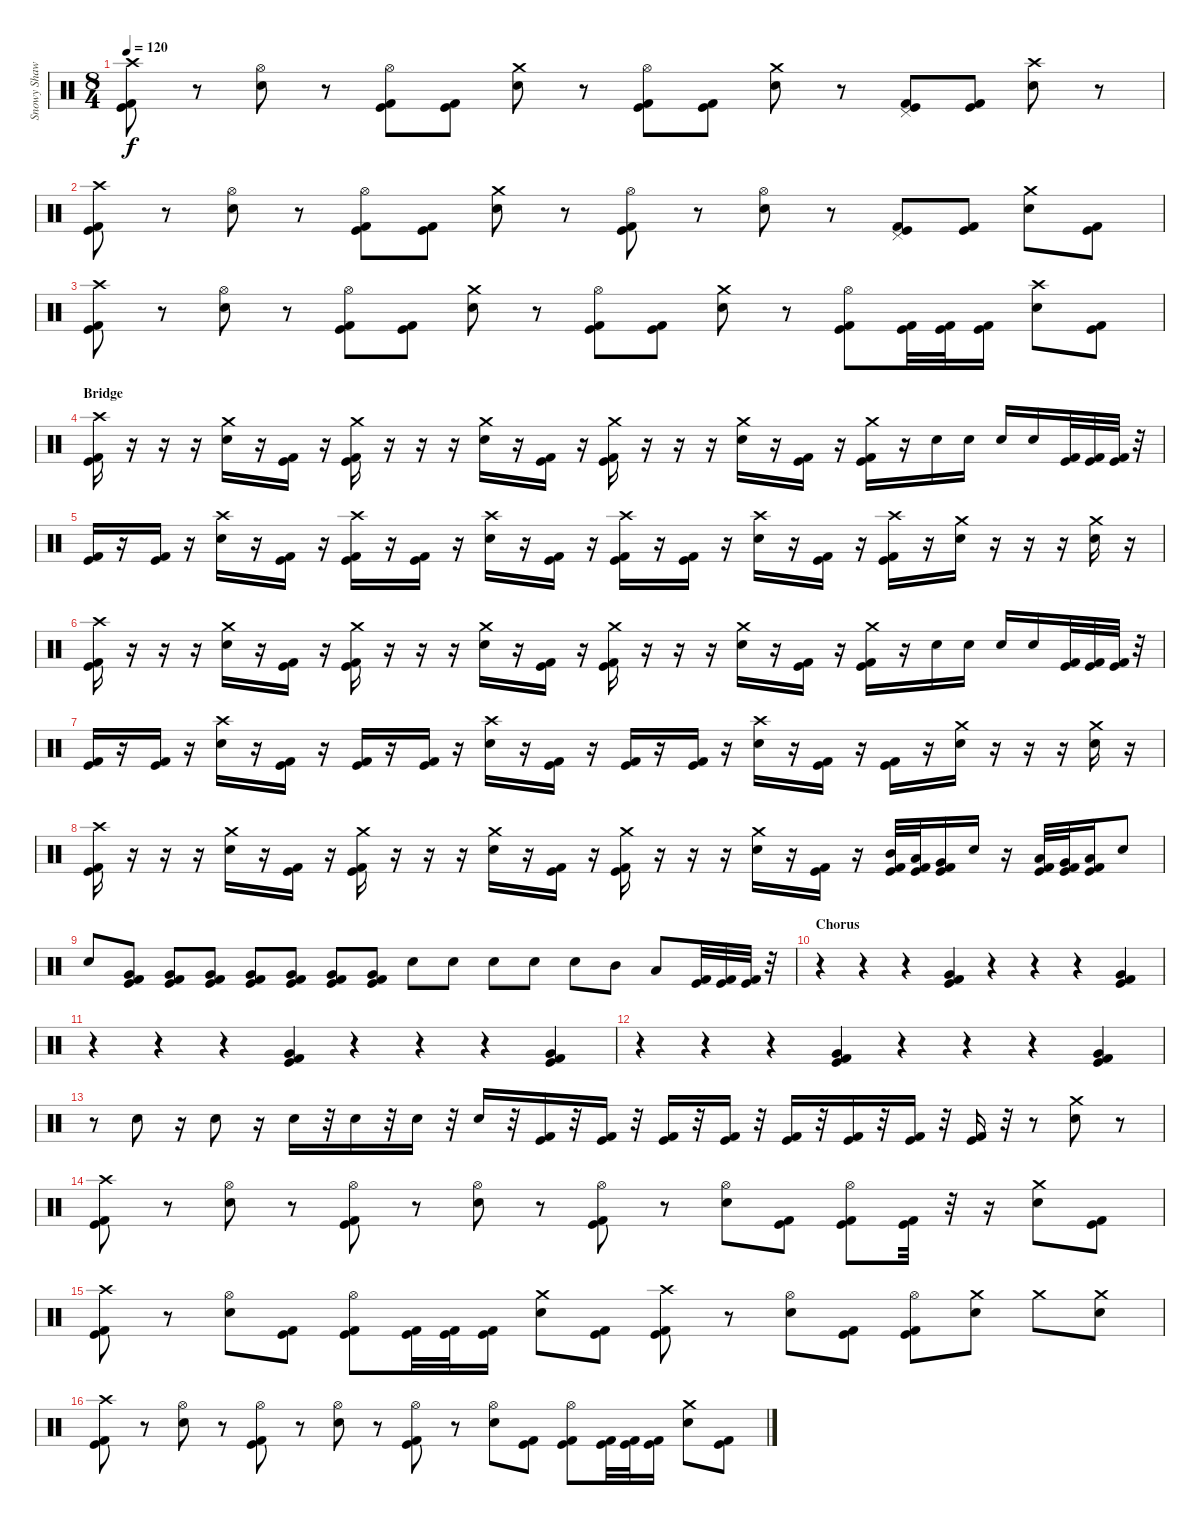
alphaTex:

\track ("Snowy Shaw" "Snowy Shaw") {instrument percussion}
\staff {score}
\articulation defaults
\ts (8 4)
\tempo 120
\clef neutral
\ks c
("Crash high (hit)" "Kick (hit) 2" "Kick (hit)").8{dy f} r.8 ("Hi-Hat (open)" "Electric Snare (hit)").8 r.8 ("Hi-Hat (open)" "Kick (hit) 2" "Kick (hit)").8 ("Kick (hit) 2" "Kick (hit)").8 ("Crash medium (hit)" "Electric Snare (hit)").8 r.8 ("Hi-Hat (open)" "Kick (hit) 2" "Kick (hit)").8 ("Kick (hit) 2" "Kick (hit)").8 ("Crash medium (hit)" "Electric Snare (hit)").8 r.8 ("Pedal Hi-Hat (hit)" "Kick (hit) 2" "Kick (hit)").8 ("Kick (hit) 2" "Kick (hit)").8 ("Crash high (hit)" "Electric Snare (hit)").8 r.8 |
("Crash high (hit)" "Kick (hit) 2" "Kick (hit)").8 r.8 ("Hi-Hat (open)" "Electric Snare (hit)").8 r.8 ("Hi-Hat (open)" "Kick (hit) 2" "Kick (hit)").8 ("Kick (hit) 2" "Kick (hit)").8 ("Crash medium (hit)" "Electric Snare (hit)").8 r.8 ("Hi-Hat (open)" "Kick (hit) 2" "Kick (hit)").8 r.8 ("Hi-Hat (open)" "Electric Snare (hit)").8 r.8 ("Pedal Hi-Hat (hit)" "Kick (hit) 2" "Kick (hit)").8 ("Kick (hit) 2" "Kick (hit)").8 ("Crash medium (hit)" "Electric Snare (hit)").8 ("Kick (hit) 2" "Kick (hit)").8 |
("Crash high (hit)" "Kick (hit) 2" "Kick (hit)").8 r.8 ("Hi-Hat (open)" "Electric Snare (hit)").8 r.8 ("Hi-Hat (open)" "Kick (hit) 2" "Kick (hit)").8 ("Kick (hit) 2" "Kick (hit)").8 ("Crash medium (hit)" "Electric Snare (hit)").8 r.8 ("Hi-Hat (open)" "Kick (hit) 2" "Kick (hit)").8 ("Kick (hit) 2" "Kick (hit)").8 ("Crash medium (hit)" "Electric Snare (hit)").8 r.8 ("Hi-Hat (open)" "Kick (hit) 2" "Kick (hit)").8 ("Kick (hit) 2" "Kick (hit)").32 ("Kick (hit) 2" "Kick (hit)").32 ("Kick (hit) 2" "Kick (hit)").16 ("Crash high (hit)" "Electric Snare (hit)").8 ("Kick (hit) 2" "Kick (hit)").8 |
\section ("" "Bridge")
("Crash high (hit)" "Kick (hit) 2" "Kick (hit)").16 r.16 r.16 r.16 ("Crash medium (hit)" "Electric Snare (hit)").16 r.16 ("Kick (hit)" "Kick (hit) 2").16 r.16 ("Crash medium (hit)" "Kick (hit) 2" "Kick (hit)").16 r.16 r.16 r.16 ("Crash medium (hit)" "Electric Snare (hit)").16 r.16 ("Kick (hit)" "Kick (hit) 2").16 r.16 ("Crash medium (hit)" "Kick (hit) 2" "Kick (hit)").16 r.16 r.16 r.16 ("Crash medium (hit)" "Electric Snare (hit)").16 r.16 ("Kick (hit) 2" "Kick (hit)").16 r.16 ("Crash medium (hit)" "Kick (hit)" "Kick (hit) 2").16 r.16 "Electric Snare (hit)".16 "Electric Snare (hit)".16 "Electric Snare (hit)".16 "Electric Snare (hit)".16 ("Kick (hit) 2" "Kick (hit)").32 ("Kick (hit) 2" "Kick (hit)").32 ("Kick (hit) 2" "Kick (hit)").32 r.32 |
("Kick (hit) 2" "Kick (hit)").16 r.16 ("Kick (hit) 2" "Kick (hit)").16 r.16 ("Crash high (hit)" "Electric Snare (hit)").16 r.16 ("Kick (hit) 2" "Kick (hit)").16 r.16 ("Crash high (hit)" "Kick (hit) 2" "Kick (hit)").16 r.16 ("Kick (hit) 2" "Kick (hit)").16 r.16 ("Crash high (hit)" "Electric Snare (hit)").16 r.16 ("Kick (hit) 2" "Kick (hit)").16 r.16 ("Crash high (hit)" "Kick (hit) 2" "Kick (hit)").16 r.16 ("Kick (hit) 2" "Kick (hit)").16 r.16 ("Crash high (hit)" "Electric Snare (hit)").16 r.16 ("Kick (hit) 2" "Kick (hit)").16 r.16 ("Crash high (hit)" "Kick (hit) 2" "Kick (hit)").16 r.16 ("Crash medium (hit)" "Electric Snare (hit)").16 r.16 r.16 r.16 ("Crash medium (hit)" "Electric Snare (hit)").16 r.16 |
("Crash high (hit)" "Kick (hit) 2" "Kick (hit)").16 r.16 r.16 r.16 ("Crash medium (hit)" "Electric Snare (hit)").16 r.16 ("Kick (hit)" "Kick (hit) 2").16 r.16 ("Crash medium (hit)" "Kick (hit) 2" "Kick (hit)").16 r.16 r.16 r.16 ("Crash medium (hit)" "Electric Snare (hit)").16 r.16 ("Kick (hit)" "Kick (hit) 2").16 r.16 ("Crash medium (hit)" "Kick (hit) 2" "Kick (hit)").16 r.16 r.16 r.16 ("Crash medium (hit)" "Electric Snare (hit)").16 r.16 ("Kick (hit) 2" "Kick (hit)").16 r.16 ("Crash medium (hit)" "Kick (hit)" "Kick (hit) 2").16 r.16 "Electric Snare (hit)".16 "Electric Snare (hit)".16 "Electric Snare (hit)".16 "Electric Snare (hit)".16 ("Kick (hit) 2" "Kick (hit)").32 ("Kick (hit) 2" "Kick (hit)").32 ("Kick (hit) 2" "Kick (hit)").32 r.32 |
("Kick (hit) 2" "Kick (hit)").16 r.16 ("Kick (hit) 2" "Kick (hit)").16 r.16 ("Crash high (hit)" "Electric Snare (hit)").16 r.16 ("Kick (hit) 2" "Kick (hit)").16 r.16 ("Kick (hit) 2" "Kick (hit)").16 r.16 ("Kick (hit) 2" "Kick (hit)").16 r.16 ("Crash high (hit)" "Electric Snare (hit)").16 r.16 ("Kick (hit) 2" "Kick (hit)").16 r.16 ("Kick (hit) 2" "Kick (hit)").16 r.16 ("Kick (hit) 2" "Kick (hit)").16 r.16 ("Crash high (hit)" "Electric Snare (hit)").16 r.16 ("Kick (hit) 2" "Kick (hit)").16 r.16 ("Kick (hit) 2" "Kick (hit)").16 r.16 ("Crash medium (hit)" "Electric Snare (hit)").16 r.16 r.16 r.16 ("Crash medium (hit)" "Electric Snare (hit)").16 r.16 |
("Crash high (hit)" "Kick (hit) 2" "Kick (hit)").16 r.16 r.16 r.16 ("Crash medium (hit)" "Electric Snare (hit)").16 r.16 ("Kick (hit)" "Kick (hit) 2").16 r.16 ("Crash medium (hit)" "Kick (hit) 2" "Kick (hit)").16 r.16 r.16 r.16 ("Crash medium (hit)" "Electric Snare (hit)").16 r.16 ("Kick (hit)" "Kick (hit) 2").16 r.16 ("Crash medium (hit)" "Kick (hit) 2" "Kick (hit)").16 r.16 r.16 r.16 ("Crash medium (hit)" "Electric Snare (hit)").16 r.16 ("Kick (hit) 2" "Kick (hit)").16 r.16 ("Mid Tom (hit)" "Kick (hit) 2" "Kick (hit)").32 ("Low Tom (hit)" "Kick (hit) 2" "Kick (hit)").32 ("Very Low Tom (hit)" "Kick (hit) 2" "Kick (hit)").16 "Electric Snare (hit)".16 r.16 ("Low Tom (hit)" "Kick (hit) 2" "Kick (hit)").32 ("Very Low Tom (hit)" "Kick (hit) 2" "Kick (hit)").32 ("Low Floor Tom (hit)" "Kick (hit) 2" "Kick (hit)").16 "Electric Snare (hit)".8 |
"Electric Snare (hit)".8 ("Very Low Tom (hit)" "Kick (hit) 2" "Kick (hit)").8 ("Very Low Tom (hit)" "Kick (hit) 2" "Kick (hit)").8 ("Very Low Tom (hit)" "Kick (hit) 2" "Kick (hit)").8 ("Very Low Tom (hit)" "Kick (hit) 2" "Kick (hit)").8 ("Very Low Tom (hit)" "Kick (hit) 2" "Kick (hit)").8 ("Very Low Tom (hit)" "Kick (hit) 2" "Kick (hit)").8 ("Very Low Tom (hit)" "Kick (hit) 2" "Kick (hit)").8 "Electric Snare (hit)".8 "Electric Snare (hit)".8 "Electric Snare (hit)".8 "Electric Snare (hit)".8 "Electric Snare (hit)".8 "Mid Tom (hit)".8 "Low Tom (hit)".8 ("Kick (hit) 2" "Kick (hit)").32 ("Kick (hit) 2" "Kick (hit)").32 ("Kick (hit) 2" "Kick (hit)").32 r.32 |
\section ("" "Chorus")
r.4 r.4 r.4 ("Very Low Tom (hit)" "Kick (hit)" "Kick (hit) 2").4 r.4 r.4 r.4 ("Very Low Tom (hit)" "Kick (hit) 2" "Kick (hit)").4 |
r.4 r.4 r.4 ("Very Low Tom (hit)" "Kick (hit)" "Kick (hit) 2").4 r.4 r.4 r.4 ("Very Low Tom (hit)" "Kick (hit) 2" "Kick (hit)").4 |
r.4 r.4 r.4 ("Very Low Tom (hit)" "Kick (hit)" "Kick (hit) 2").4 r.4 r.4 r.4 ("Very Low Tom (hit)" "Kick (hit) 2" "Kick (hit)").4 |
r.8 "Electric Snare (hit)".8 r.16 "Electric Snare (hit)".8 r.16 "Electric Snare (hit)".16 r.32 "Electric Snare (hit)".16 r.32 "Electric Snare (hit)".16 r.32 "Electric Snare (hit)".16 r.32 ("Kick (hit)" "Kick (hit) 2").16 r.32 ("Kick (hit)" "Kick (hit) 2").16 r.32 ("Kick (hit)" "Kick (hit) 2").16 r.32 ("Kick (hit)" "Kick (hit) 2").16 r.32 ("Kick (hit)" "Kick (hit) 2").16 r.32 ("Kick (hit)" "Kick (hit) 2").16 r.32 ("Kick (hit)" "Kick (hit) 2").16 r.32 ("Kick (hit)" "Kick (hit) 2").16 r.32 r.8 ("Crash medium (hit)" "Electric Snare (hit)").8 r.8 |
("Crash high (hit)" "Kick (hit)" "Kick (hit) 2").8 r.8 ("Hi-Hat (open)" "Electric Snare (hit)").8 r.8 ("Hi-Hat (open)" "Kick (hit)" "Kick (hit) 2").8 r.8 ("Hi-Hat (open)" "Electric Snare (hit)").8 r.8 ("Hi-Hat (open)" "Kick (hit) 2" "Kick (hit)").8 r.8 ("Hi-Hat (open)" "Electric Snare (hit)").8 ("Kick (hit) 2" "Kick (hit)").8 ("Hi-Hat (open)" "Kick (hit) 2" "Kick (hit)").8 ("Kick (hit) 2" "Kick (hit)").32 r.32 r.16 ("Crash medium (hit)" "Electric Snare (hit)").8 ("Kick (hit)" "Kick (hit) 2").8 |
("Crash high (hit)" "Kick (hit)" "Kick (hit) 2").8 r.8 ("Hi-Hat (open)" "Electric Snare (hit)").8 ("Kick (hit) 2" "Kick (hit)").8 ("Hi-Hat (open)" "Kick (hit)" "Kick (hit) 2").8 ("Kick (hit) 2" "Kick (hit)").32 ("Kick (hit) 2" "Kick (hit)").32 ("Kick (hit) 2" "Kick (hit)").16 ("Crash medium (hit)" "Electric Snare (hit)").8 ("Kick (hit) 2" "Kick (hit)").8 ("Crash high (hit)" "Kick (hit) 2" "Kick (hit)").8 r.8 ("Hi-Hat (open)" "Electric Snare (hit)").8 ("Kick (hit) 2" "Kick (hit)").8 ("Hi-Hat (open)" "Kick (hit) 2" "Kick (hit)").8 ("Crash medium (hit)" "Electric Snare (hit)").8 "Crash medium (hit)".8 ("Crash medium (hit)" "Electric Snare (hit)").8 |
("Crash high (hit)" "Kick (hit)" "Kick (hit) 2").8 r.8 ("Hi-Hat (open)" "Electric Snare (hit)").8 r.8 ("Hi-Hat (open)" "Kick (hit)" "Kick (hit) 2").8 r.8 ("Hi-Hat (open)" "Electric Snare (hit)").8 r.8 ("Hi-Hat (open)" "Kick (hit) 2" "Kick (hit)").8 r.8 ("Hi-Hat (open)" "Electric Snare (hit)").8 ("Kick (hit) 2" "Kick (hit)").8 ("Hi-Hat (open)" "Kick (hit) 2" "Kick (hit)").8 ("Kick (hit) 2" "Kick (hit)").32 ("Kick (hit) 2" "Kick (hit)").32 ("Kick (hit) 2" "Kick (hit)").16 ("Crash medium (hit)" "Electric Snare (hit)").8 ("Kick (hit)" "Kick (hit) 2").8
